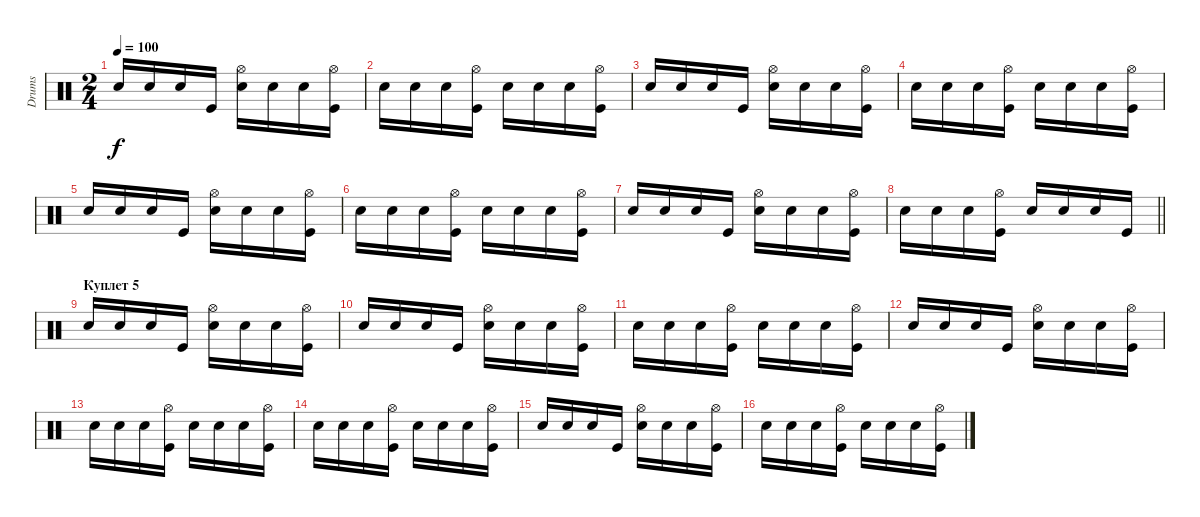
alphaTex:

\track ("Drums" "Drums") {instrument percussion}
\staff {score}
\articulation defaults
\ts (2 4)
\tempo 100
\clef neutral
\ks c "Electric Snare (hit)".16{dy f} "Electric Snare (hit)".16 "Electric Snare (hit)".16 "Kick (hit)".16
("Hi-Hat (open)" "Electric Snare (hit)").16 "Electric Snare (hit)".16 "Electric Snare (hit)".16 ("Hi-Hat (open)" "Kick (hit)").16 |
"Electric Snare (hit)".16 "Electric Snare (hit)".16 "Electric Snare (hit)".16 ("Hi-Hat (open)" "Kick (hit)").16 "Electric Snare (hit)".16 "Electric Snare (hit)".16 "Electric Snare (hit)".16 ("Hi-Hat (open)" "Kick (hit)").16 |
"Electric Snare (hit)".16 "Electric Snare (hit)".16 "Electric Snare (hit)".16 "Kick (hit)".16 ("Hi-Hat (open)" "Electric Snare (hit)").16 "Electric Snare (hit)".16 "Electric Snare (hit)".16 ("Hi-Hat (open)" "Kick (hit)").16 |
"Electric Snare (hit)".16 "Electric Snare (hit)".16 "Electric Snare (hit)".16 ("Hi-Hat (open)" "Kick (hit)").16 "Electric Snare (hit)".16 "Electric Snare (hit)".16 "Electric Snare (hit)".16 ("Hi-Hat (open)" "Kick (hit)").16 |
"Electric Snare (hit)".16 "Electric Snare (hit)".16 "Electric Snare (hit)".16 "Kick (hit)".16 ("Hi-Hat (open)" "Electric Snare (hit)").16 "Electric Snare (hit)".16 "Electric Snare (hit)".16 ("Hi-Hat (open)" "Kick (hit)").16 |
"Electric Snare (hit)".16 "Electric Snare (hit)".16 "Electric Snare (hit)".16 ("Hi-Hat (open)" "Kick (hit)").16 "Electric Snare (hit)".16 "Electric Snare (hit)".16 "Electric Snare (hit)".16 ("Hi-Hat (open)" "Kick (hit)").16 |
"Electric Snare (hit)".16 "Electric Snare (hit)".16 "Electric Snare (hit)".16 "Kick (hit)".16 ("Hi-Hat (open)" "Electric Snare (hit)").16 "Electric Snare (hit)".16 "Electric Snare (hit)".16 ("Hi-Hat (open)" "Kick (hit)").16 |
\barLineRight lightlight "Electric Snare (hit)".16 "Electric Snare (hit)".16 "Electric Snare (hit)".16
("Hi-Hat (open)" "Kick (hit)").16 "Electric Snare (hit)".16 "Electric Snare (hit)".16 "Electric Snare (hit)".16 "Kick (hit)".16 |
\section ("" "Куплет 5")
"Electric Snare (hit)".16 "Electric Snare (hit)".16 "Electric Snare (hit)".16 "Kick (hit)".16 ("Hi-Hat (open)" "Electric Snare (hit)").16 "Electric Snare (hit)".16 "Electric Snare (hit)".16 ("Hi-Hat (open)" "Kick (hit)").16 |
"Electric Snare (hit)".16 "Electric Snare (hit)".16 "Electric Snare (hit)".16 "Kick (hit)".16 ("Hi-Hat (open)" "Electric Snare (hit)").16 "Electric Snare (hit)".16 "Electric Snare (hit)".16 ("Hi-Hat (open)" "Kick (hit)").16 |
"Electric Snare (hit)".16 "Electric Snare (hit)".16 "Electric Snare (hit)".16 ("Hi-Hat (open)" "Kick (hit)").16 "Electric Snare (hit)".16 "Electric Snare (hit)".16 "Electric Snare (hit)".16 ("Hi-Hat (open)" "Kick (hit)").16 |
"Electric Snare (hit)".16 "Electric Snare (hit)".16 "Electric Snare (hit)".16 "Kick (hit)".16 ("Hi-Hat (open)" "Electric Snare (hit)").16 "Electric Snare (hit)".16 "Electric Snare (hit)".16 ("Hi-Hat (open)" "Kick (hit)").16 |
"Electric Snare (hit)".16 "Electric Snare (hit)".16 "Electric Snare (hit)".16 ("Hi-Hat (open)" "Kick (hit)").16 "Electric Snare (hit)".16 "Electric Snare (hit)".16 "Electric Snare (hit)".16 ("Hi-Hat (open)" "Kick (hit)").16 |
"Electric Snare (hit)".16 "Electric Snare (hit)".16 "Electric Snare (hit)".16 ("Hi-Hat (open)" "Kick (hit)").16 "Electric Snare (hit)".16 "Electric Snare (hit)".16 "Electric Snare (hit)".16 ("Hi-Hat (open)" "Kick (hit)").16 |
"Electric Snare (hit)".16 "Electric Snare (hit)".16 "Electric Snare (hit)".16 "Kick (hit)".16 ("Hi-Hat (open)" "Electric Snare (hit)").16 "Electric Snare (hit)".16 "Electric Snare (hit)".16 ("Hi-Hat (open)" "Kick (hit)").16 |
"Electric Snare (hit)".16 "Electric Snare (hit)".16 "Electric Snare (hit)".16 ("Hi-Hat (open)" "Kick (hit)").16 "Electric Snare (hit)".16 "Electric Snare (hit)".16 "Electric Snare (hit)".16 ("Hi-Hat (open)" "Kick (hit)").16
